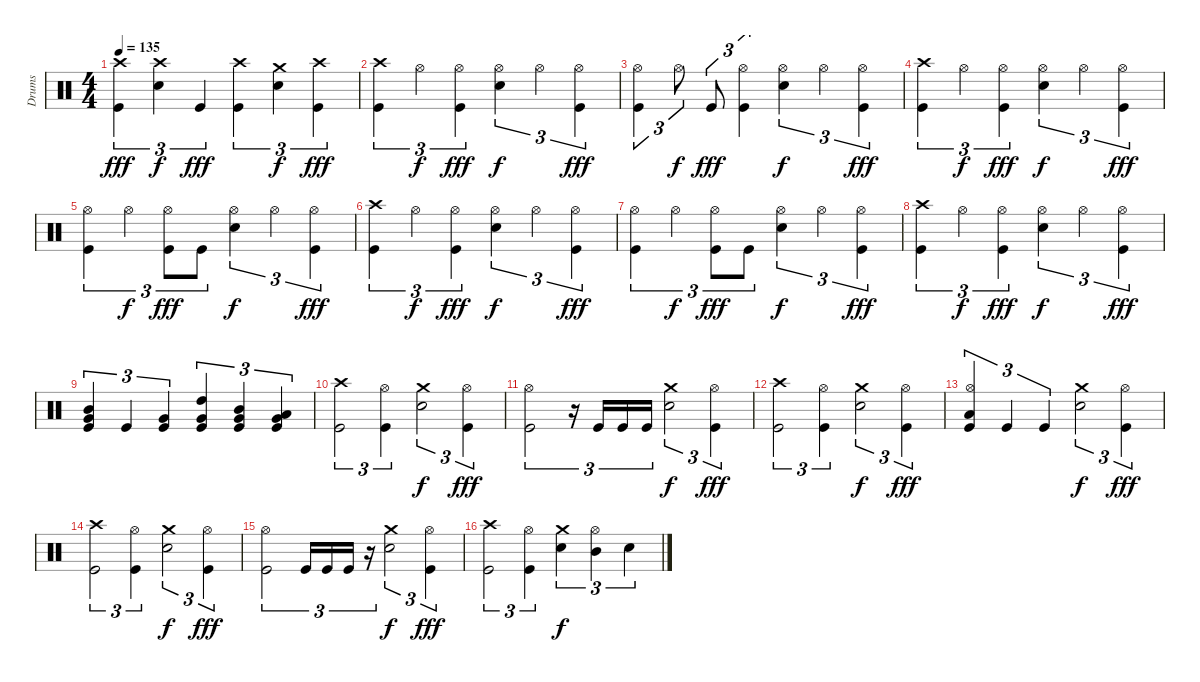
\track ("Drums" "Drums") {instrument percussion}
\staff {score}
\articulation defaults
\ts (4 4)
\tempo 135
\clef neutral
\ks c
("Crash high (hit)" "Kick (hit)").4{tu (3 2) dy fff} ("Crash high (hit)" "Electric Snare (hit)").4{tu (3 2) dy f} "Kick (hit)".4{tu (3 2) dy fff} ("Crash high (hit)" "Kick (hit)").4{tu (3 2)} ("Crash medium (hit)" "Electric Snare (hit)").4{tu (3 2) dy f} ("Crash high (hit)" "Kick (hit)").4{tu (3 2) dy fff} |
("Crash high (hit)" "Kick (hit)").4{tu (3 2)} "Hi-Hat (open)".4{tu (3 2) dy f} ("Hi-Hat (open)" "Kick (hit)").4{tu (3 2) dy fff} ("Hi-Hat (open)" "Electric Snare (hit)").4{tu (3 2) dy f} "Hi-Hat (open)".4{tu (3 2)} ("Hi-Hat (open)" "Kick (hit)").4{tu (3 2) dy fff} |
("Hi-Hat (open)" "Kick (hit)").4{tu (3 2)} "Hi-Hat (open)".8{tu (3 2) dy f} "Kick (hit)".8{tu (3 2) dy fff} ("Hi-Hat (open)" "Kick (hit)").4{tu (3 2)} ("Hi-Hat (open)" "Electric Snare (hit)").4{tu (3 2) dy f} "Hi-Hat (open)".4{tu (3 2)} ("Hi-Hat (open)" "Kick (hit)").4{tu (3 2) dy fff} |
("Crash high (hit)" "Kick (hit)").4{tu (3 2)} "Hi-Hat (open)".4{tu (3 2) dy f} ("Hi-Hat (open)" "Kick (hit)").4{tu (3 2) dy fff} ("Hi-Hat (open)" "Electric Snare (hit)").4{tu (3 2) dy f} "Hi-Hat (open)".4{tu (3 2)} ("Hi-Hat (open)" "Kick (hit)").4{tu (3 2) dy fff} |
("Hi-Hat (open)" "Kick (hit)").4{tu (3 2)} "Hi-Hat (open)".4{tu (3 2) dy f} ("Hi-Hat (open)" "Kick (hit)").8{tu (3 2) dy fff} "Kick (hit)".8{tu (3 2)} ("Hi-Hat (open)" "Electric Snare (hit)").4{tu (3 2) dy f} "Hi-Hat (open)".4{tu (3 2)} ("Hi-Hat (open)" "Kick (hit)").4{tu (3 2) dy fff} |
("Crash high (hit)" "Kick (hit)").4{tu (3 2)} "Hi-Hat (open)".4{tu (3 2) dy f} ("Hi-Hat (open)" "Kick (hit)").4{tu (3 2) dy fff} ("Hi-Hat (open)" "Electric Snare (hit)").4{tu (3 2) dy f} "Hi-Hat (open)".4{tu (3 2)} ("Hi-Hat (open)" "Kick (hit)").4{tu (3 2) dy fff} |
("Hi-Hat (open)" "Kick (hit)").4{tu (3 2)} "Hi-Hat (open)".4{tu (3 2) dy f} ("Hi-Hat (open)" "Kick (hit)").8{tu (3 2) dy fff} "Kick (hit)".8{tu (3 2)} ("Hi-Hat (open)" "Electric Snare (hit)").4{tu (3 2) dy f} "Hi-Hat (open)".4{tu (3 2)} ("Hi-Hat (open)" "Kick (hit)").4{tu (3 2) dy fff} |
("Crash high (hit)" "Kick (hit)").4{tu (3 2)} "Hi-Hat (open)".4{tu (3 2) dy f} ("Hi-Hat (open)" "Kick (hit)").4{tu (3 2) dy fff} ("Hi-Hat (open)" "Electric Snare (hit)").4{tu (3 2) dy f} "Hi-Hat (open)".4{tu (3 2)} ("Hi-Hat (open)" "Kick (hit)").4{tu (3 2) dy fff} |
("Mid Tom (hit)" "Very Low Tom (hit)" "Kick (hit)").4{tu (3 2)} "Kick (hit)".4{tu (3 2)} ("Very Low Tom (hit)" "Kick (hit)").4{tu (3 2)} ("High Tom (hit)" "Very Low Tom (hit)" "Kick (hit)").4{tu (3 2)} ("Mid Tom (hit)" "Very Low Tom (hit)" "Kick (hit)").4{tu (3 2)} ("Low Tom (hit)" "Very Low Tom (hit)" "Kick (hit)").4{tu (3 2)} |
("Crash high (hit)" "Kick (hit)").2{tu (3 2)} ("Hi-Hat (open)" "Kick (hit)").4{tu (3 2)} ("Crash medium (hit)" "Electric Snare (hit)").2{tu (3 2) dy f} ("Hi-Hat (open)" "Kick (hit)").4{tu (3 2) dy fff} |
("Hi-Hat (open)" "Kick (hit)").2{tu (3 2)} r.16{tu (3 2)} "Kick (hit)".16{tu (3 2)} "Kick (hit)".16{tu (3 2)} "Kick (hit)".16{tu (3 2)} ("Crash medium (hit)" "Electric Snare (hit)").2{tu (3 2) dy f} ("Hi-Hat (open)" "Kick (hit)").4{tu (3 2) dy fff} |
("Crash high (hit)" "Kick (hit)").2{tu (3 2)} ("Hi-Hat (open)" "Kick (hit)").4{tu (3 2)} ("Crash medium (hit)" "Electric Snare (hit)").2{tu (3 2) dy f} ("Hi-Hat (open)" "Kick (hit)").4{tu (3 2) dy fff} |
("Hi-Hat (open)" "Low Floor Tom (hit)" "Kick (hit)").4{tu (3 2)} "Kick (hit)".4{tu (3 2)} "Kick (hit)".4{tu (3 2)} ("Crash medium (hit)" "Electric Snare (hit)").2{tu (3 2) dy f} ("Hi-Hat (open)" "Kick (hit)").4{tu (3 2) dy fff} |
("Crash high (hit)" "Kick (hit)").2{tu (3 2)} ("Hi-Hat (open)" "Kick (hit)").4{tu (3 2)} ("Crash medium (hit)" "Electric Snare (hit)").2{tu (3 2) dy f} ("Hi-Hat (open)" "Kick (hit)").4{tu (3 2) dy fff} |
("Hi-Hat (open)" "Kick (hit)").2{tu (3 2)} "Kick (hit)".16{tu (3 2)} "Kick (hit)".16{tu (3 2)} "Kick (hit)".16{tu (3 2)} r.16{tu (3 2)} ("Crash medium (hit)" "Electric Snare (hit)").2{tu (3 2) dy f} ("Hi-Hat (open)" "Kick (hit)").4{tu (3 2) dy fff} |
("Crash high (hit)" "Kick (hit)").2{tu (3 2)} ("Hi-Hat (open)" "Kick (hit)").4{tu (3 2)} ("Crash medium (hit)" "Electric Snare (hit)").4{tu (3 2) dy f} ("Mid Tom (hit)" "Hi-Hat (open)").4{tu (3 2)} "Electric Snare (hit)".4{tu (3 2)}
